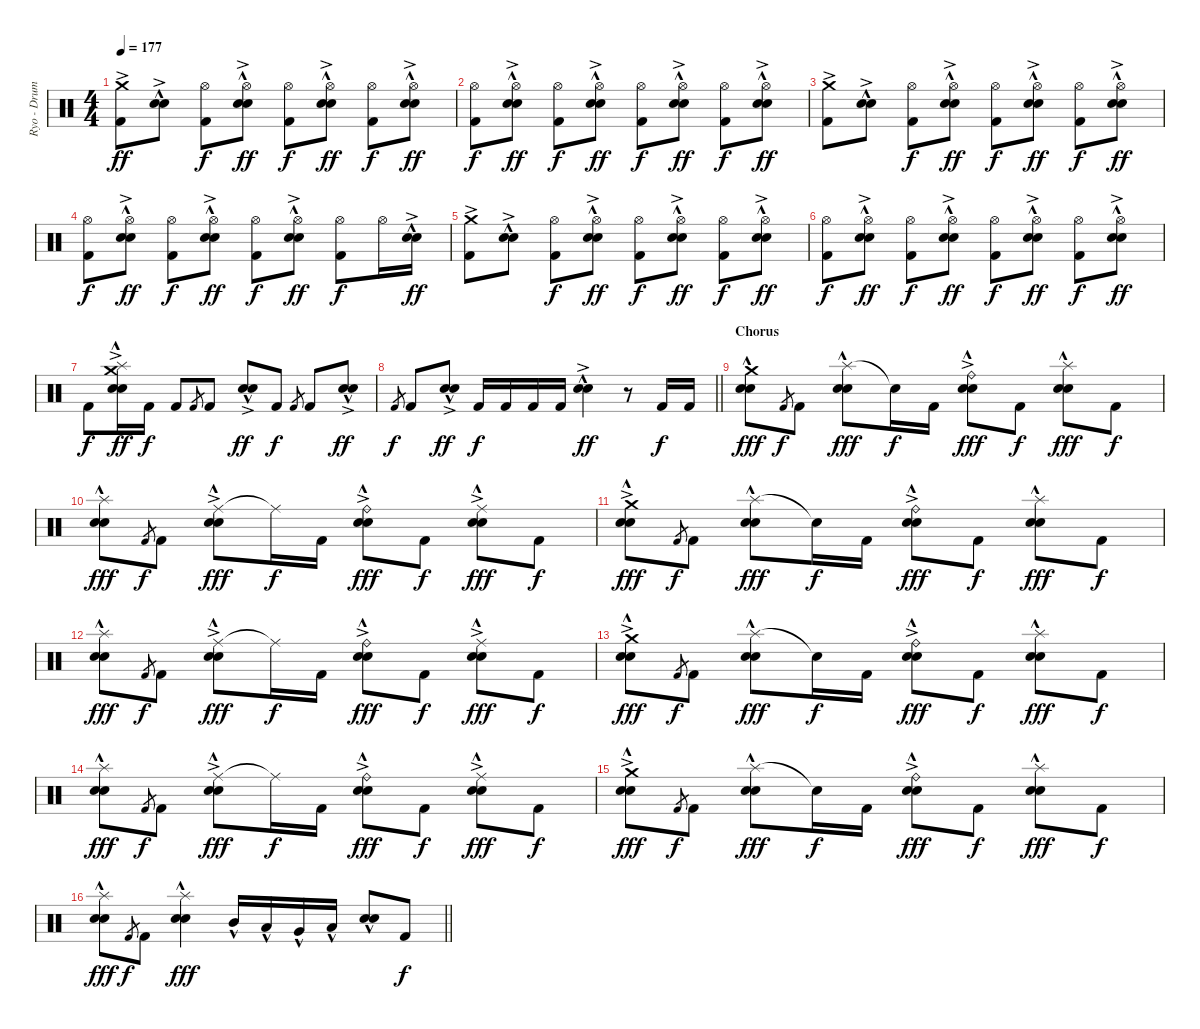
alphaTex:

\track ("Ryo - Drums" "Ryo - Drum") {instrument percussion}
\staff {score}
\articulation defaults
\ts (4 4)
\section ("" "")
\tempo 177
\clef neutral
\ks c
("Crash medium (hit)"{ac} "Kick (hit) 2").8{dy ff} ("Electric Snare (hit)"{hac} "Snare (hit) 2"{ac}).8 ("Hi-Hat (open)" "Kick (hit) 2").8{dy f} ("Hi-Hat (open)" "Electric Snare (hit)"{hac} "Snare (hit) 2"{ac}).8{dy ff} ("Hi-Hat (open)" "Kick (hit) 2").8{dy f} ("Hi-Hat (open)" "Electric Snare (hit)"{hac} "Snare (hit) 2"{ac}).8{dy ff} ("Hi-Hat (open)" "Kick (hit) 2").8{dy f} ("Hi-Hat (open)" "Electric Snare (hit)"{hac} "Snare (hit) 2"{ac}).8{dy ff} |
("Hi-Hat (open)" "Kick (hit) 2").8{dy f} ("Hi-Hat (open)" "Electric Snare (hit)"{hac} "Snare (hit) 2"{ac}).8{dy ff} ("Hi-Hat (open)" "Kick (hit) 2").8{dy f} ("Hi-Hat (open)" "Electric Snare (hit)"{hac} "Snare (hit) 2"{ac}).8{dy ff} ("Hi-Hat (open)" "Kick (hit) 2").8{dy f} ("Hi-Hat (open)" "Electric Snare (hit)"{hac} "Snare (hit) 2"{ac}).8{dy ff} ("Hi-Hat (open)" "Kick (hit) 2").8{dy f} ("Hi-Hat (open)" "Electric Snare (hit)"{hac} "Snare (hit) 2"{ac}).8{dy ff} |
("Crash medium (hit)"{ac} "Kick (hit) 2").8 ("Electric Snare (hit)"{hac} "Snare (hit) 2"{ac}).8 ("Hi-Hat (open)" "Kick (hit) 2").8{dy f} ("Hi-Hat (open)" "Electric Snare (hit)"{hac} "Snare (hit) 2"{ac}).8{dy ff} ("Hi-Hat (open)" "Kick (hit) 2").8{dy f} ("Hi-Hat (open)" "Electric Snare (hit)"{hac} "Snare (hit) 2"{ac}).8{dy ff} ("Hi-Hat (open)" "Kick (hit) 2").8{dy f} ("Hi-Hat (open)" "Electric Snare (hit)"{hac} "Snare (hit) 2"{ac}).8{dy ff} |
("Hi-Hat (open)" "Kick (hit) 2").8{dy f} ("Hi-Hat (open)" "Electric Snare (hit)"{hac} "Snare (hit) 2"{ac}).8{dy ff} ("Hi-Hat (open)" "Kick (hit) 2").8{dy f} ("Hi-Hat (open)" "Electric Snare (hit)"{hac} "Snare (hit) 2"{ac}).8{dy ff} ("Hi-Hat (open)" "Kick (hit) 2").8{dy f} ("Hi-Hat (open)" "Electric Snare (hit)"{hac} "Snare (hit) 2"{ac}).8{dy ff} ("Hi-Hat (open)" "Kick (hit) 2").8{dy f} "Hi-Hat (open)".16 ("Electric Snare (hit)"{hac} "Snare (hit) 2"{ac}).16{dy ff} |
("Crash medium (hit)"{ac} "Kick (hit) 2").8 ("Electric Snare (hit)"{hac} "Snare (hit) 2"{ac}).8 ("Hi-Hat (open)" "Kick (hit) 2").8{dy f} ("Hi-Hat (open)" "Electric Snare (hit)"{hac} "Snare (hit) 2"{ac}).8{dy ff} ("Hi-Hat (open)" "Kick (hit) 2").8{dy f} ("Hi-Hat (open)" "Electric Snare (hit)"{hac} "Snare (hit) 2"{ac}).8{dy ff} ("Hi-Hat (open)" "Kick (hit) 2").8{dy f} ("Hi-Hat (open)" "Electric Snare (hit)"{hac} "Snare (hit) 2"{ac}).8{dy ff} |
("Hi-Hat (open)" "Kick (hit) 2").8{dy f} ("Hi-Hat (open)" "Electric Snare (hit)"{hac} "Snare (hit) 2"{ac}).8{dy ff} ("Hi-Hat (open)" "Kick (hit) 2").8{dy f} ("Hi-Hat (open)" "Electric Snare (hit)"{hac} "Snare (hit) 2"{ac}).8{dy ff} ("Hi-Hat (open)" "Kick (hit) 2").8{dy f} ("Hi-Hat (open)" "Electric Snare (hit)"{hac} "Snare (hit) 2"{ac}).8{dy ff} ("Hi-Hat (open)" "Kick (hit) 2").8{dy f} ("Hi-Hat (open)" "Electric Snare (hit)"{hac} "Snare (hit) 2"{ac}).8{dy ff} |
"Kick (hit) 2".8{dy f} ("Crash medium (hit)"{ac} "Splash (hit)"{ac} "Electric Snare (hit)"{hac} "Snare (hit) 2"{ac}).16{dy ff} "Kick (hit) 2".16{dy f} "Kick (hit) 2".8 "Kick (hit) 2".8{gr} "Kick (hit) 2".8 ("Electric Snare (hit)"{hac} "Snare (hit) 2"{ac}).8{dy ff} "Kick (hit) 2".8{dy f} "Kick (hit) 2".8{gr} "Kick (hit) 2".8 ("Electric Snare (hit)"{hac} "Snare (hit) 2"{ac}).8{dy ff} |
\barLineRight lightlight "Kick (hit) 2".8{gr dy f} "Kick (hit) 2".8
("Electric Snare (hit)"{hac} "Snare (hit) 2"{ac}).8{dy ff} "Kick (hit) 2".16{dy f} "Kick (hit) 2".16 "Kick (hit) 2".16 "Kick (hit) 2".16 ("Electric Snare (hit)"{hac} "Snare (hit) 2"{ac}).4{dy ff} r.8 "Kick (hit) 2".16{dy f} "Kick (hit) 2".16 |
\section ("" "Chorus")
("Crash medium (hit)" "Electric Snare (hit)"{hac} "Snare (hit) 2"{hac}).8{dy fff} "Kick (hit) 2".8{gr dy f} "Kick (hit) 2".8 ("Splash (hit)" "Electric Snare (hit)"{hac} "Snare (hit) 2"{hac}).8{dy fff} "Snare (hit)"{t}.16{dy f} "Kick (hit) 2".16 ("Ride (bell)"{ac} "Electric Snare (hit)"{hac} "Snare (hit) 2"{hac}).8{dy fff} "Kick (hit) 2".8{dy f} ("Splash (hit)" "Electric Snare (hit)"{hac} "Snare (hit) 2"{hac}).8{dy fff} "Kick (hit) 2".8{dy f} |
("Splash (hit)" "Electric Snare (hit)"{hac} "Snare (hit) 2"{hac}).8{dy fff} "Kick (hit) 2".8{gr dy f} "Kick (hit) 2".8 ("Ride (middle)"{ac} "Electric Snare (hit)"{hac} "Snare (hit) 2"{hac}).8{dy fff} "Ride (middle)"{t}.16{dy f} "Kick (hit) 2".16 ("Ride (bell)"{ac} "Electric Snare (hit)"{hac} "Snare (hit) 2"{hac}).8{dy fff} "Kick (hit) 2".8{dy f} ("Ride (middle)"{ac} "Electric Snare (hit)"{hac} "Snare (hit) 2"{hac}).8{dy fff} "Kick (hit) 2".8{dy f} |
("Crash medium (hit)"{ac} "Electric Snare (hit)"{hac} "Snare (hit) 2"{hac}).8{dy fff} "Kick (hit) 2".8{gr dy f} "Kick (hit) 2".8 ("Splash (hit)" "Electric Snare (hit)"{hac} "Snare (hit) 2"{hac}).8{dy fff} "Snare (hit)"{t}.16{dy f} "Kick (hit) 2".16 ("Ride (bell)"{ac} "Electric Snare (hit)"{hac} "Snare (hit) 2"{hac}).8{dy fff} "Kick (hit) 2".8{dy f} ("Splash (hit)" "Electric Snare (hit)"{hac} "Snare (hit) 2"{hac}).8{dy fff} "Kick (hit) 2".8{dy f} |
("Splash (hit)" "Electric Snare (hit)"{hac} "Snare (hit) 2"{hac}).8{dy fff} "Kick (hit) 2".8{gr dy f} "Kick (hit) 2".8 ("Ride (middle)"{ac} "Electric Snare (hit)"{hac} "Snare (hit) 2"{hac}).8{dy fff} "Ride (middle)"{t}.16{dy f} "Kick (hit) 2".16 ("Ride (bell)"{ac} "Electric Snare (hit)"{hac} "Snare (hit) 2"{hac}).8{dy fff} "Kick (hit) 2".8{dy f} ("Ride (middle)"{ac} "Electric Snare (hit)"{hac} "Snare (hit) 2"{hac}).8{dy fff} "Kick (hit) 2".8{dy f} |
("Crash medium (hit)"{ac} "Electric Snare (hit)"{hac} "Snare (hit) 2"{hac}).8{dy fff} "Kick (hit) 2".8{gr dy f} "Kick (hit) 2".8 ("Splash (hit)" "Electric Snare (hit)"{hac} "Snare (hit) 2"{hac}).8{dy fff} "Snare (hit)"{t}.16{dy f} "Kick (hit) 2".16 ("Ride (bell)"{ac} "Electric Snare (hit)"{hac} "Snare (hit) 2"{hac}).8{dy fff} "Kick (hit) 2".8{dy f} ("Splash (hit)" "Electric Snare (hit)"{hac} "Snare (hit) 2"{hac}).8{dy fff} "Kick (hit) 2".8{dy f} |
("Splash (hit)" "Electric Snare (hit)"{hac} "Snare (hit) 2"{hac}).8{dy fff} "Kick (hit) 2".8{gr dy f} "Kick (hit) 2".8 ("Ride (middle)"{ac} "Electric Snare (hit)"{hac} "Snare (hit) 2"{hac}).8{dy fff} "Ride (middle)"{t}.16{dy f} "Kick (hit) 2".16 ("Ride (bell)"{ac} "Electric Snare (hit)"{hac} "Snare (hit) 2"{hac}).8{dy fff} "Kick (hit) 2".8{dy f} ("Ride (middle)"{ac} "Electric Snare (hit)"{hac} "Snare (hit) 2"{hac}).8{dy fff} "Kick (hit) 2".8{dy f} |
("Crash medium (hit)"{ac} "Electric Snare (hit)"{hac} "Snare (hit) 2"{hac}).8{dy fff} "Kick (hit) 2".8{gr dy f} "Kick (hit) 2".8 ("Splash (hit)" "Electric Snare (hit)"{hac} "Snare (hit) 2"{hac}).8{dy fff} "Snare (hit)"{t}.16{dy f} "Kick (hit) 2".16 ("Ride (bell)"{ac} "Electric Snare (hit)"{hac} "Snare (hit) 2"{hac}).8{dy fff} "Kick (hit) 2".8{dy f} ("Splash (hit)" "Electric Snare (hit)"{hac} "Snare (hit) 2"{hac}).8{dy fff} "Kick (hit) 2".8{dy f} |
\barLineRight lightlight
("Splash (hit)"{hac} "Electric Snare (hit)"{hac} "Snare (hit) 2"{hac}).8{dy fff} "Kick (hit) 2".8{gr dy f} "Kick (hit) 2".8 ("Splash (hit)"{hac} "Electric Snare (hit)"{hac} "Snare (hit) 2"{hac}).4{dy fff} "Mid Tom (hit)"{hac}.16 "Low Tom (hit)"{hac}.16 "Very Low Tom (hit)"{hac}.16 "Low Floor Tom (hit)"{hac}.16 ("Electric Snare (hit)"{hac} "Snare (hit) 2"{hac}).8 "Kick (hit) 2".8{dy f}
